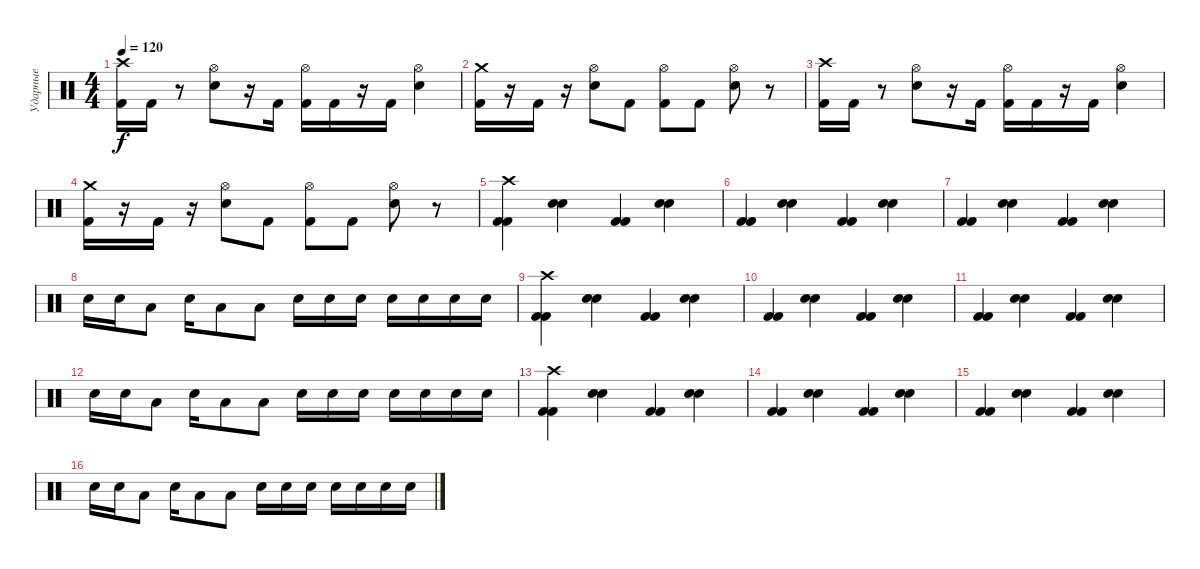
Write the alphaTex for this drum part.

\track ("Ударные" "Ударные") {instrument percussion}
\staff {score}
\articulation defaults
\ts (4 4)
\tempo 120
\clef neutral
\ks c
("Kick (hit) 2" "Crash high (hit)").16{dy f} "Kick (hit) 2".16 r.8 ("Electric Snare (hit)" "Hi-Hat (open)").8 r.16 "Kick (hit) 2".16 ("Kick (hit) 2" "Hi-Hat (open)").16 "Kick (hit) 2".16 r.16 "Kick (hit) 2".16 ("Electric Snare (hit)" "Hi-Hat (open)").4 |
("Kick (hit) 2" "Crash medium (hit)").16 r.16 "Kick (hit) 2".16 r.16 ("Electric Snare (hit)" "Hi-Hat (open)").8 "Kick (hit) 2".8 ("Kick (hit) 2" "Hi-Hat (open)").8 "Kick (hit) 2".8 ("Electric Snare (hit)" "Hi-Hat (open)").8 r.8 |
("Kick (hit) 2" "Crash high (hit)").16 "Kick (hit) 2".16 r.8 ("Electric Snare (hit)" "Hi-Hat (open)").8 r.16 "Kick (hit) 2".16 ("Kick (hit) 2" "Hi-Hat (open)").16 "Kick (hit) 2".16 r.16 "Kick (hit) 2".16 ("Electric Snare (hit)" "Hi-Hat (open)").4 |
("Kick (hit) 2" "Crash medium (hit)").16 r.16 "Kick (hit) 2".16 r.16 ("Electric Snare (hit)" "Hi-Hat (open)").8 "Kick (hit) 2".8 ("Kick (hit) 2" "Hi-Hat (open)").8 "Kick (hit) 2".8 ("Electric Snare (hit)" "Hi-Hat (open)").8 r.8 |
("Crash high (hit)" "Kick (hit) 2" "Kick (hit) 2").4 ("Electric Snare (hit)" "Electric Snare (hit)").4 ("Kick (hit) 2" "Kick (hit) 2").4 ("Electric Snare (hit)" "Electric Snare (hit)").4 |
("Kick (hit) 2" "Kick (hit) 2").4 ("Electric Snare (hit)" "Electric Snare (hit)").4 ("Kick (hit) 2" "Kick (hit) 2").4 ("Electric Snare (hit)" "Electric Snare (hit)").4 |
("Kick (hit) 2" "Kick (hit) 2").4 ("Electric Snare (hit)" "Electric Snare (hit)").4 ("Kick (hit) 2" "Kick (hit) 2").4 ("Electric Snare (hit)" "Electric Snare (hit)").4 |
"Electric Snare (hit)".16 "Electric Snare (hit)".16 "Low Floor Tom (hit)".8 "Electric Snare (hit)".16 "Low Floor Tom (hit)".8 "Low Floor Tom (hit)".8 "Electric Snare (hit)".16 "Electric Snare (hit)".16 "Electric Snare (hit)".16 "Electric Snare (hit)".16 "Electric Snare (hit)".16 "Electric Snare (hit)".16 "Electric Snare (hit)".16 |
("Crash high (hit)" "Kick (hit) 2" "Kick (hit) 2").4 ("Electric Snare (hit)" "Electric Snare (hit)").4 ("Kick (hit) 2" "Kick (hit) 2").4 ("Electric Snare (hit)" "Electric Snare (hit)").4 |
("Kick (hit) 2" "Kick (hit) 2").4 ("Electric Snare (hit)" "Electric Snare (hit)").4 ("Kick (hit) 2" "Kick (hit) 2").4 ("Electric Snare (hit)" "Electric Snare (hit)").4 |
("Kick (hit) 2" "Kick (hit) 2").4 ("Electric Snare (hit)" "Electric Snare (hit)").4 ("Kick (hit) 2" "Kick (hit) 2").4 ("Electric Snare (hit)" "Electric Snare (hit)").4 |
"Electric Snare (hit)".16 "Electric Snare (hit)".16 "Low Floor Tom (hit)".8 "Electric Snare (hit)".16 "Low Floor Tom (hit)".8 "Low Floor Tom (hit)".8 "Electric Snare (hit)".16 "Electric Snare (hit)".16 "Electric Snare (hit)".16 "Electric Snare (hit)".16 "Electric Snare (hit)".16 "Electric Snare (hit)".16 "Electric Snare (hit)".16 |
("Crash high (hit)" "Kick (hit) 2" "Kick (hit) 2").4 ("Electric Snare (hit)" "Electric Snare (hit)").4 ("Kick (hit) 2" "Kick (hit) 2").4 ("Electric Snare (hit)" "Electric Snare (hit)").4 |
("Kick (hit) 2" "Kick (hit) 2").4 ("Electric Snare (hit)" "Electric Snare (hit)").4 ("Kick (hit) 2" "Kick (hit) 2").4 ("Electric Snare (hit)" "Electric Snare (hit)").4 |
("Kick (hit) 2" "Kick (hit) 2").4 ("Electric Snare (hit)" "Electric Snare (hit)").4 ("Kick (hit) 2" "Kick (hit) 2").4 ("Electric Snare (hit)" "Electric Snare (hit)").4 |
"Electric Snare (hit)".16 "Electric Snare (hit)".16 "Low Floor Tom (hit)".8 "Electric Snare (hit)".16 "Low Floor Tom (hit)".8 "Low Floor Tom (hit)".8 "Electric Snare (hit)".16 "Electric Snare (hit)".16 "Electric Snare (hit)".16 "Electric Snare (hit)".16 "Electric Snare (hit)".16 "Electric Snare (hit)".16 "Electric Snare (hit)".16
